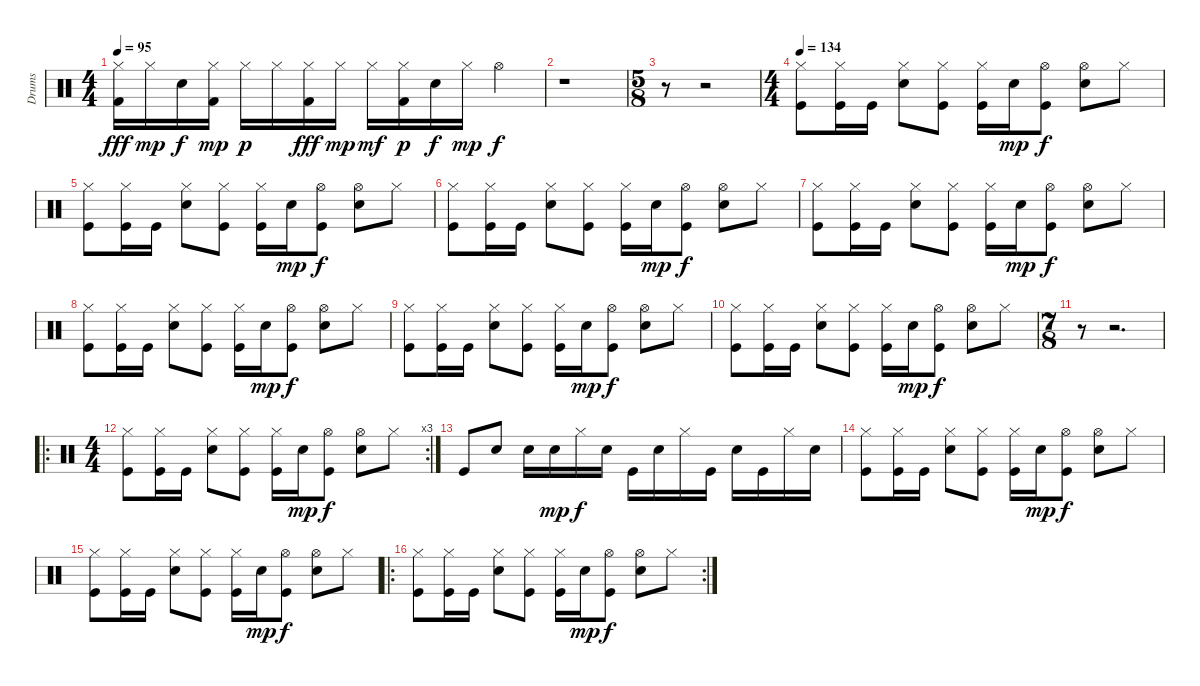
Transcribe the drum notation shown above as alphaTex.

\track ("Drums" "Drums") {instrument percussion}
\staff {score}
\articulation defaults
\ts (4 4)
\tempo 95
\clef neutral
\ks c
("Hi-Hat (closed)" "Kick (hit) 2").16{dy fff} "Hi-Hat (closed)".16{dy mp} "Electric Snare (hit)".16{dy f} ("Hi-Hat (closed)" "Kick (hit) 2").16{dy mp} "Hi-Hat (closed)".16{dy p} "Hi-Hat (closed)".16 ("Hi-Hat (closed)" "Kick (hit) 2").16{dy fff} "Hi-Hat (closed)".16{dy mp} "Hi-Hat (closed)".16{dy mf} ("Hi-Hat (closed)" "Kick (hit) 2").16{dy p} "Electric Snare (hit)".16{dy f} "Hi-Hat (closed)".16{dy mp} "Hi-Hat (open)".4{dy f} |
r.1 |
\ts (5 8)
r.8 r.2 |
\ts (4 4)
\tempo 134
("Hi-Hat (closed)" "Kick (hit)").8 ("Hi-Hat (closed)" "Kick (hit)").16 "Kick (hit)".16 ("Hi-Hat (closed)" "Snare (hit) 2").8 ("Hi-Hat (closed)" "Kick (hit)").8 ("Hi-Hat (closed)" "Kick (hit)").16 "Snare (hit) 2".16{dy mp} ("Hi-Hat (open)" "Kick (hit)").8{dy f} ("Hi-Hat (open)" "Snare (hit) 2").8 "Hi-Hat (closed)".8 |
("Hi-Hat (closed)" "Kick (hit)").8 ("Hi-Hat (closed)" "Kick (hit)").16 "Kick (hit)".16 ("Hi-Hat (closed)" "Snare (hit) 2").8 ("Hi-Hat (closed)" "Kick (hit)").8 ("Hi-Hat (closed)" "Kick (hit)").16 "Snare (hit) 2".16{dy mp} ("Hi-Hat (open)" "Kick (hit)").8{dy f} ("Hi-Hat (open)" "Snare (hit) 2").8 "Hi-Hat (closed)".8 |
("Hi-Hat (closed)" "Kick (hit)").8 ("Hi-Hat (closed)" "Kick (hit)").16 "Kick (hit)".16 ("Hi-Hat (closed)" "Snare (hit) 2").8 ("Hi-Hat (closed)" "Kick (hit)").8 ("Hi-Hat (closed)" "Kick (hit)").16 "Snare (hit) 2".16{dy mp} ("Hi-Hat (open)" "Kick (hit)").8{dy f} ("Hi-Hat (open)" "Snare (hit) 2").8 "Hi-Hat (closed)".8 |
("Hi-Hat (closed)" "Kick (hit)").8 ("Hi-Hat (closed)" "Kick (hit)").16 "Kick (hit)".16 ("Hi-Hat (closed)" "Snare (hit) 2").8 ("Hi-Hat (closed)" "Kick (hit)").8 ("Hi-Hat (closed)" "Kick (hit)").16 "Snare (hit) 2".16{dy mp} ("Hi-Hat (open)" "Kick (hit)").8{dy f} ("Hi-Hat (open)" "Snare (hit) 2").8 "Hi-Hat (closed)".8 |
("Hi-Hat (closed)" "Kick (hit)").8 ("Hi-Hat (closed)" "Kick (hit)").16 "Kick (hit)".16 ("Hi-Hat (closed)" "Snare (hit) 2").8 ("Hi-Hat (closed)" "Kick (hit)").8 ("Hi-Hat (closed)" "Kick (hit)").16 "Snare (hit) 2".16{dy mp} ("Hi-Hat (open)" "Kick (hit)").8{dy f} ("Hi-Hat (open)" "Snare (hit) 2").8 "Hi-Hat (closed)".8 |
("Hi-Hat (closed)" "Kick (hit)").8 ("Hi-Hat (closed)" "Kick (hit)").16 "Kick (hit)".16 ("Hi-Hat (closed)" "Snare (hit) 2").8 ("Hi-Hat (closed)" "Kick (hit)").8 ("Hi-Hat (closed)" "Kick (hit)").16 "Snare (hit) 2".16{dy mp} ("Hi-Hat (open)" "Kick (hit)").8{dy f} ("Hi-Hat (open)" "Snare (hit) 2").8 "Hi-Hat (closed)".8 |
("Hi-Hat (closed)" "Kick (hit)").8 ("Hi-Hat (closed)" "Kick (hit)").16 "Kick (hit)".16 ("Hi-Hat (closed)" "Snare (hit) 2").8 ("Hi-Hat (closed)" "Kick (hit)").8 ("Hi-Hat (closed)" "Kick (hit)").16 "Snare (hit) 2".16{dy mp} ("Hi-Hat (open)" "Kick (hit)").8{dy f} ("Hi-Hat (open)" "Snare (hit) 2").8 "Hi-Hat (closed)".8 |
\ts (7 8)
r.8 r.2{d} |
\ro
\rc 3
\ts (4 4)
("Hi-Hat (closed)" "Kick (hit)").8 ("Hi-Hat (closed)" "Kick (hit)").16 "Kick (hit)".16 ("Hi-Hat (closed)" "Snare (hit) 2").8 ("Hi-Hat (closed)" "Kick (hit)").8 ("Hi-Hat (closed)" "Kick (hit)").16 "Snare (hit) 2".16{dy mp} ("Hi-Hat (open)" "Kick (hit)").8{dy f} ("Hi-Hat (open)" "Snare (hit) 2").8 "Hi-Hat (closed)".8 |
"Kick (hit)".8 "Electric Snare (hit)".8 "Electric Snare (hit)".16 "Electric Snare (hit)".16{dy mp} "Hi-Hat (closed)".16{dy f} "Electric Snare (hit)".16 "Kick (hit)".16 "Electric Snare (hit)".16 "Hi-Hat (closed)".16 "Kick (hit)".16 "Electric Snare (hit)".16 "Kick (hit)".16 "Hi-Hat (closed)".16 "Electric Snare (hit)".16 |
("Hi-Hat (closed)" "Kick (hit)").8 ("Hi-Hat (closed)" "Kick (hit)").16 "Kick (hit)".16 ("Hi-Hat (closed)" "Snare (hit) 2").8 ("Hi-Hat (closed)" "Kick (hit)").8 ("Hi-Hat (closed)" "Kick (hit)").16 "Snare (hit) 2".16{dy mp} ("Hi-Hat (open)" "Kick (hit)").8{dy f} ("Hi-Hat (open)" "Snare (hit) 2").8 "Hi-Hat (closed)".8 |
("Hi-Hat (closed)" "Kick (hit)").8 ("Hi-Hat (closed)" "Kick (hit)").16 "Kick (hit)".16 ("Hi-Hat (closed)" "Snare (hit) 2").8 ("Hi-Hat (closed)" "Kick (hit)").8 ("Hi-Hat (closed)" "Kick (hit)").16 "Snare (hit) 2".16{dy mp} ("Hi-Hat (open)" "Kick (hit)").8{dy f} ("Hi-Hat (open)" "Snare (hit) 2").8 "Hi-Hat (closed)".8 |
\ro
\rc 2
("Hi-Hat (closed)" "Kick (hit)").8 ("Hi-Hat (closed)" "Kick (hit)").16 "Kick (hit)".16 ("Hi-Hat (closed)" "Snare (hit) 2").8 ("Hi-Hat (closed)" "Kick (hit)").8 ("Hi-Hat (closed)" "Kick (hit)").16 "Snare (hit) 2".16{dy mp} ("Hi-Hat (open)" "Kick (hit)").8{dy f} ("Hi-Hat (open)" "Snare (hit) 2").8 "Hi-Hat (closed)".8
